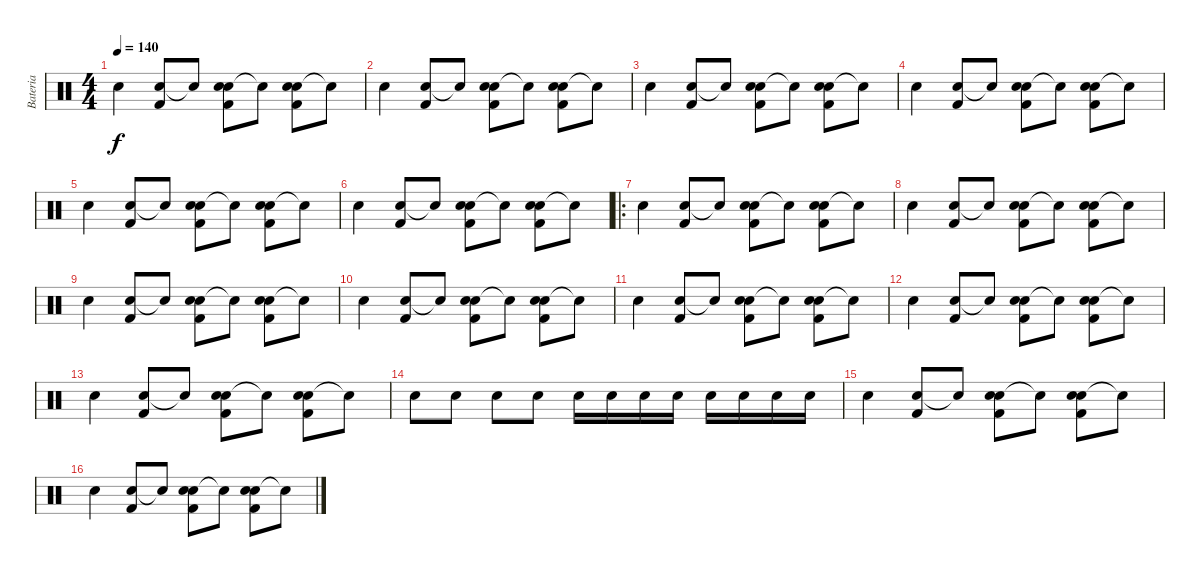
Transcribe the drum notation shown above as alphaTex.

\track ("Bateria" "Bateria") {instrument percussion}
\staff {score}
\articulation defaults
\ts (4 4)
\tempo 140
\clef neutral
\ks c "Snare (hit) 2".4{dy f}
("Snare (hit) 2" "Kick (hit) 2").8 "Snare (hit)"{t}.8 ("Electric Snare (hit)" "Snare (hit) 2" "Kick (hit) 2").8 "Snare (hit)"{t}.8 ("Electric Snare (hit)" "Snare (hit) 2" "Kick (hit) 2").8 "Snare (hit)"{t}.8 |
"Snare (hit) 2".4 ("Snare (hit) 2" "Kick (hit) 2").8 "Snare (hit)"{t}.8 ("Electric Snare (hit)" "Snare (hit) 2" "Kick (hit) 2").8 "Snare (hit)"{t}.8 ("Electric Snare (hit)" "Snare (hit) 2" "Kick (hit) 2").8 "Snare (hit)"{t}.8 |
"Snare (hit) 2".4 ("Snare (hit) 2" "Kick (hit) 2").8 "Snare (hit)"{t}.8 ("Electric Snare (hit)" "Snare (hit) 2" "Kick (hit) 2").8 "Snare (hit)"{t}.8 ("Electric Snare (hit)" "Snare (hit) 2" "Kick (hit) 2").8 "Snare (hit)"{t}.8 |
"Snare (hit) 2".4 ("Snare (hit) 2" "Kick (hit) 2").8 "Snare (hit)"{t}.8 ("Electric Snare (hit)" "Snare (hit) 2" "Kick (hit) 2").8 "Snare (hit)"{t}.8 ("Electric Snare (hit)" "Snare (hit) 2" "Kick (hit) 2").8 "Snare (hit)"{t}.8 |
"Snare (hit) 2".4 ("Snare (hit) 2" "Kick (hit) 2").8 "Snare (hit)"{t}.8 ("Electric Snare (hit)" "Snare (hit) 2" "Kick (hit) 2").8 "Snare (hit)"{t}.8 ("Electric Snare (hit)" "Snare (hit) 2" "Kick (hit) 2").8 "Snare (hit)"{t}.8 |
"Snare (hit) 2".4 ("Snare (hit) 2" "Kick (hit) 2").8 "Snare (hit)"{t}.8 ("Electric Snare (hit)" "Snare (hit) 2" "Kick (hit) 2").8 "Snare (hit)"{t}.8 ("Electric Snare (hit)" "Snare (hit) 2" "Kick (hit) 2").8 "Snare (hit)"{t}.8 |
\ro "Snare (hit) 2".4
("Snare (hit) 2" "Kick (hit) 2").8 "Snare (hit)"{t}.8 ("Electric Snare (hit)" "Snare (hit) 2" "Kick (hit) 2").8 "Snare (hit)"{t}.8 ("Electric Snare (hit)" "Snare (hit) 2" "Kick (hit) 2").8 "Snare (hit)"{t}.8 |
"Snare (hit) 2".4 ("Snare (hit) 2" "Kick (hit) 2").8 "Snare (hit)"{t}.8 ("Electric Snare (hit)" "Snare (hit) 2" "Kick (hit) 2").8 "Snare (hit)"{t}.8 ("Electric Snare (hit)" "Snare (hit) 2" "Kick (hit) 2").8 "Snare (hit)"{t}.8 |
"Snare (hit) 2".4 ("Snare (hit) 2" "Kick (hit) 2").8 "Snare (hit)"{t}.8 ("Electric Snare (hit)" "Snare (hit) 2" "Kick (hit) 2").8 "Snare (hit)"{t}.8 ("Electric Snare (hit)" "Snare (hit) 2" "Kick (hit) 2").8 "Snare (hit)"{t}.8 |
"Snare (hit) 2".4 ("Snare (hit) 2" "Kick (hit) 2").8 "Snare (hit)"{t}.8 ("Electric Snare (hit)" "Snare (hit) 2" "Kick (hit) 2").8 "Snare (hit)"{t}.8 ("Electric Snare (hit)" "Snare (hit) 2" "Kick (hit) 2").8 "Snare (hit)"{t}.8 |
"Snare (hit) 2".4 ("Snare (hit) 2" "Kick (hit) 2").8 "Snare (hit)"{t}.8 ("Electric Snare (hit)" "Snare (hit) 2" "Kick (hit) 2").8 "Snare (hit)"{t}.8 ("Electric Snare (hit)" "Snare (hit) 2" "Kick (hit) 2").8 "Snare (hit)"{t}.8 |
"Snare (hit) 2".4 ("Snare (hit) 2" "Kick (hit) 2").8 "Snare (hit)"{t}.8 ("Electric Snare (hit)" "Snare (hit) 2" "Kick (hit) 2").8 "Snare (hit)"{t}.8 ("Electric Snare (hit)" "Snare (hit) 2" "Kick (hit) 2").8 "Snare (hit)"{t}.8 |
"Snare (hit) 2".4 ("Snare (hit) 2" "Kick (hit) 2").8 "Snare (hit)"{t}.8 ("Electric Snare (hit)" "Snare (hit) 2" "Kick (hit) 2").8 "Snare (hit)"{t}.8 ("Electric Snare (hit)" "Snare (hit) 2" "Kick (hit) 2").8 "Snare (hit)"{t}.8 |
"Electric Snare (hit)".8 "Electric Snare (hit)".8 "Electric Snare (hit)".8 "Electric Snare (hit)".8 "Electric Snare (hit)".16 "Electric Snare (hit)".16 "Electric Snare (hit)".16 "Electric Snare (hit)".16 "Electric Snare (hit)".16 "Electric Snare (hit)".16 "Electric Snare (hit)".16 "Electric Snare (hit)".16 |
"Snare (hit) 2".4 ("Snare (hit) 2" "Kick (hit) 2").8 "Snare (hit)"{t}.8 ("Electric Snare (hit)" "Snare (hit) 2" "Kick (hit) 2").8 "Snare (hit)"{t}.8 ("Electric Snare (hit)" "Snare (hit) 2" "Kick (hit) 2").8 "Snare (hit)"{t}.8 |
"Snare (hit) 2".4 ("Snare (hit) 2" "Kick (hit) 2").8 "Snare (hit)"{t}.8 ("Electric Snare (hit)" "Snare (hit) 2" "Kick (hit) 2").8 "Snare (hit)"{t}.8 ("Electric Snare (hit)" "Snare (hit) 2" "Kick (hit) 2").8 "Snare (hit)"{t}.8
